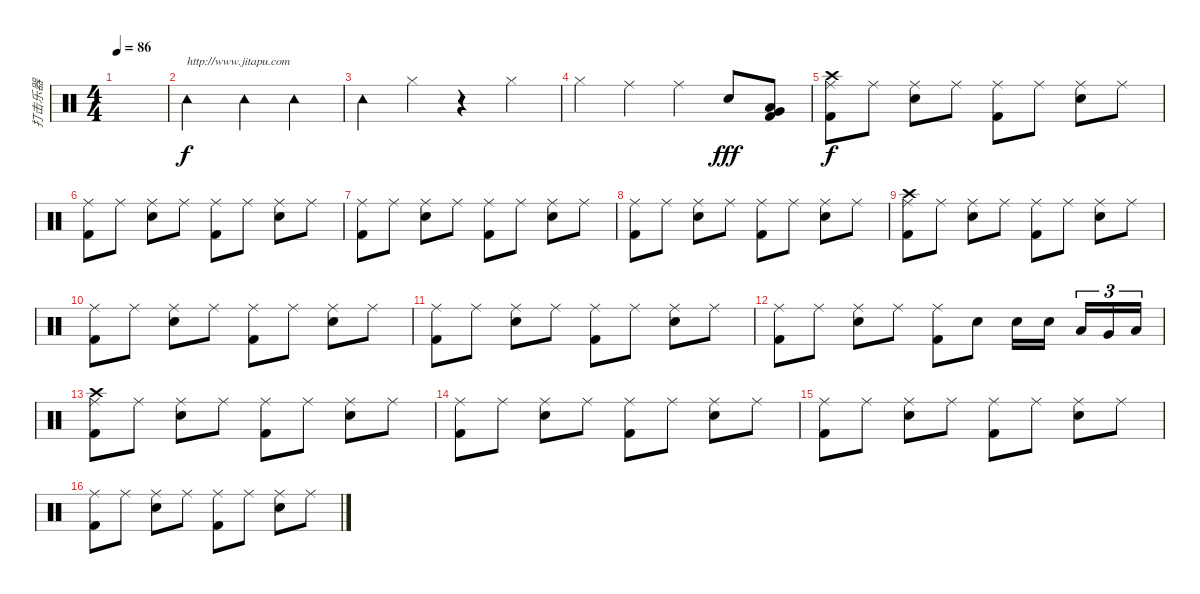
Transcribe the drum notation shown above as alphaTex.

\track ("打击乐器" "打击乐器") {instrument percussion}
\staff {score}
\articulation defaults
\ts (4 4)
\tempo 86
\clef neutral
\ks c
|
"Tambourine (hit)".2{txt "http://www.jitapu.com"} "Tambourine (hit)".4 "Tambourine (hit)".4 |
"Tambourine (hit)".4 "Hi-Hat (closed)".4 r.4 "Hi-Hat (closed)".4 |
"Hi-Hat (closed)".4 "Ride (middle)".4 "Ride (middle)".4 "Electric Snare (hit)".8{dy fff} ("Kick (hit) 2" "Very Low Tom (hit)" "Low Floor Tom (hit)").8 |
("Ride (middle)" "Kick (hit) 2" "Crash high (hit)").8{dy f} "Ride (middle)".8 ("Ride (middle)" "Snare (hit) 2").8 "Ride (middle)".8 ("Ride (middle)" "Kick (hit) 2").8 "Ride (middle)".8 ("Ride (middle)" "Snare (hit) 2").8 "Ride (middle)".8 |
("Ride (middle)" "Kick (hit) 2").8 "Ride (middle)".8 ("Ride (middle)" "Snare (hit) 2").8 "Ride (middle)".8 ("Ride (middle)" "Kick (hit) 2").8 "Ride (middle)".8 ("Ride (middle)" "Snare (hit) 2").8 "Ride (middle)".8 |
("Ride (middle)" "Kick (hit) 2").8 "Ride (middle)".8 ("Ride (middle)" "Snare (hit) 2").8 "Ride (middle)".8 ("Ride (middle)" "Kick (hit) 2").8 "Ride (middle)".8 ("Ride (middle)" "Snare (hit) 2").8 "Ride (middle)".8 |
("Ride (middle)" "Kick (hit) 2").8 "Ride (middle)".8 ("Ride (middle)" "Snare (hit) 2").8 "Ride (middle)".8 ("Ride (middle)" "Kick (hit) 2").8 "Ride (middle)".8 ("Ride (middle)" "Snare (hit) 2").8 "Ride (middle)".8 |
("Ride (middle)" "Kick (hit) 2" "Crash high (hit)").8 "Ride (middle)".8 ("Ride (middle)" "Snare (hit) 2").8 "Ride (middle)".8 ("Ride (middle)" "Kick (hit) 2").8 "Ride (middle)".8 ("Ride (middle)" "Snare (hit) 2").8 "Ride (middle)".8 |
("Ride (middle)" "Kick (hit) 2").8 "Ride (middle)".8 ("Ride (middle)" "Snare (hit) 2").8 "Ride (middle)".8 ("Ride (middle)" "Kick (hit) 2").8 "Ride (middle)".8 ("Ride (middle)" "Snare (hit) 2").8 "Ride (middle)".8 |
("Ride (middle)" "Kick (hit) 2").8 "Ride (middle)".8 ("Ride (middle)" "Snare (hit) 2").8 "Ride (middle)".8 ("Ride (middle)" "Kick (hit) 2").8 "Ride (middle)".8 ("Ride (middle)" "Snare (hit) 2").8 "Ride (middle)".8 |
("Ride (middle)" "Kick (hit) 2").8 "Ride (middle)".8 ("Ride (middle)" "Snare (hit) 2").8 "Ride (middle)".8 ("Ride (middle)" "Kick (hit) 2").8 "Electric Snare (hit)".8 "Electric Snare (hit)".16 "Electric Snare (hit)".16{beam splitsecondary} "Low Tom (hit)".16{tu (3 2)} "Very Low Tom (hit)".16{tu (3 2)} "Low Floor Tom (hit)".16{tu (3 2)} |
("Ride (middle)" "Kick (hit) 2" "Crash high (hit)").8 "Ride (middle)".8 ("Ride (middle)" "Snare (hit) 2").8 "Ride (middle)".8 ("Ride (middle)" "Kick (hit) 2").8 "Ride (middle)".8 ("Ride (middle)" "Snare (hit) 2").8 "Ride (middle)".8 |
("Ride (middle)" "Kick (hit) 2").8 "Ride (middle)".8 ("Ride (middle)" "Snare (hit) 2").8 "Ride (middle)".8 ("Ride (middle)" "Kick (hit) 2").8 "Ride (middle)".8 ("Ride (middle)" "Snare (hit) 2").8 "Ride (middle)".8 |
("Ride (middle)" "Kick (hit) 2").8 "Ride (middle)".8 ("Ride (middle)" "Snare (hit) 2").8 "Ride (middle)".8 ("Ride (middle)" "Kick (hit) 2").8 "Ride (middle)".8 ("Ride (middle)" "Snare (hit) 2").8 "Ride (middle)".8 |
("Ride (middle)" "Kick (hit) 2").8 "Ride (middle)".8 ("Ride (middle)" "Snare (hit) 2").8 "Ride (middle)".8 ("Ride (middle)" "Kick (hit) 2").8 "Ride (middle)".8 ("Ride (middle)" "Snare (hit) 2").8 "Ride (middle)".8
